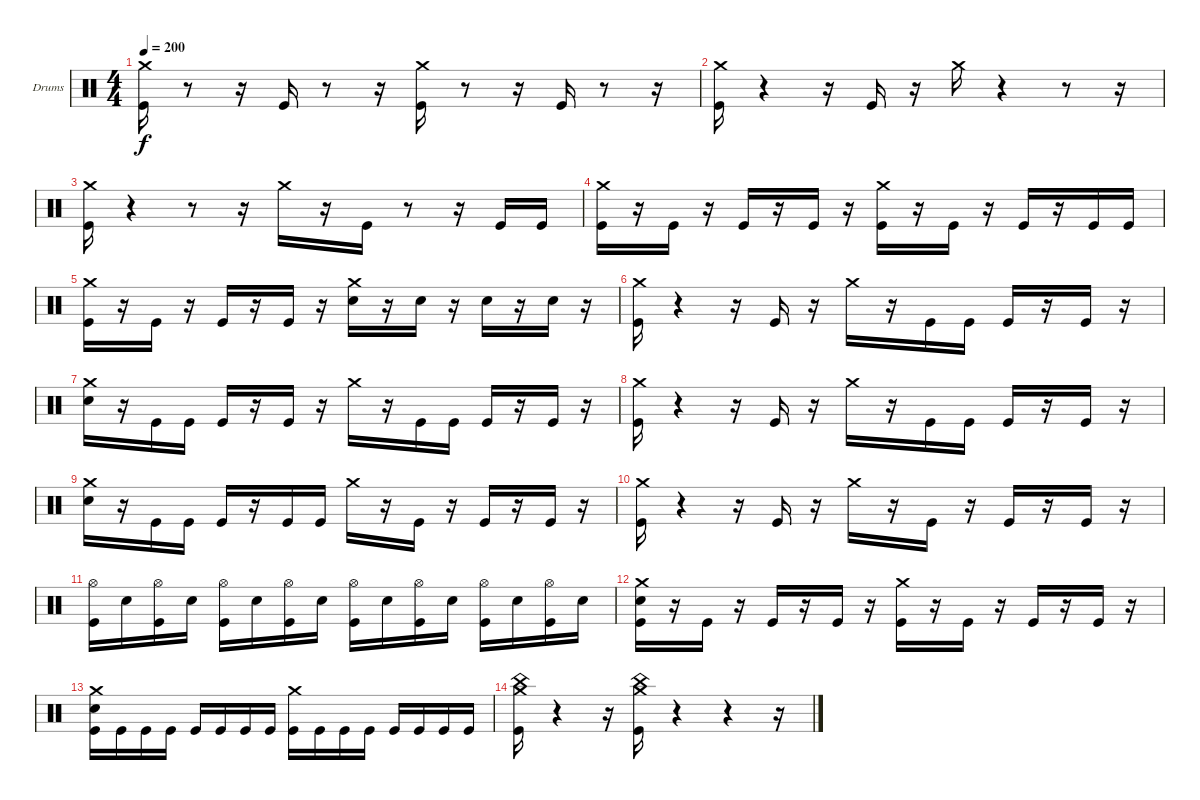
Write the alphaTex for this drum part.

\defaultSystemsLayout 4
\bracketExtendMode groupsimilarinstruments
\firstSystemTrackNameOrientation horizontal
\otherSystemsTrackNameOrientation horizontal
\track ("Drumkit" "Drums") {instrument percussion}
\staff {score}
\articulation defaults
\ts (4 4)
\tempo 200
\clef neutral
\ks c
("Crash medium (hit)" "Kick (hit)").16{dy f} r.8 r.16 "Kick (hit)".16 r.8 r.16 ("Kick (hit)" "Crash medium (hit)").16 r.8 r.16 "Kick (hit)".16 r.8 r.16 |
("Kick (hit)" "Crash medium (hit)").16 r.4 r.16 "Kick (hit)".16 r.16 "Crash medium (hit)".16 r.4 r.8 r.16 |
("Crash medium (hit)" "Kick (hit)").16 r.4 r.8 r.16 "Crash medium (hit)".16 r.16 "Kick (hit)".16 r.8 r.16 "Kick (hit)".16 "Kick (hit)".16 |
("Kick (hit)" "Crash medium (hit)").16 r.16 "Kick (hit)".16 r.16 "Kick (hit)".16 r.16 "Kick (hit)".16 r.16 ("Kick (hit)" "Crash medium (hit)").16 r.16 "Kick (hit)".16 r.16 "Kick (hit)".16 r.16 "Kick (hit)".16 "Kick (hit)".16 |
("Kick (hit)" "Crash medium (hit)").16 r.16 "Kick (hit)".16 r.16 "Kick (hit)".16 r.16 "Kick (hit)".16 r.16 ("Crash medium (hit)" "Snare (hit) 2").16 r.16 "Snare (hit) 2".16 r.16 "Snare (hit) 2".16 r.16 "Snare (hit) 2".16 r.16 |
("Kick (hit)" "Crash medium (hit)").16 r.4 r.16 "Kick (hit)".16 r.16 "Crash medium (hit)".16 r.16 "Kick (hit)".16 "Kick (hit)".16 "Kick (hit)".16 r.16 "Kick (hit)".16 r.16 |
("Snare (hit) 2" "Crash medium (hit)").16 r.16 "Kick (hit)".16 "Kick (hit)".16 "Kick (hit)".16 r.16 "Kick (hit)".16 r.16 "Crash medium (hit)".16 r.16 "Kick (hit)".16 "Kick (hit)".16 "Kick (hit)".16 r.16 "Kick (hit)".16 r.16 |
("Kick (hit)" "Crash medium (hit)").16 r.4 r.16 "Kick (hit)".16 r.16 "Crash medium (hit)".16 r.16 "Kick (hit)".16 "Kick (hit)".16 "Kick (hit)".16 r.16 "Kick (hit)".16 r.16 |
("Snare (hit) 2" "Crash medium (hit)").16 r.16 "Kick (hit)".16 "Kick (hit)".16 "Kick (hit)".16 r.16 "Kick (hit)".16 "Kick (hit)".16 "Crash medium (hit)".16 r.16 "Kick (hit)".16 r.16 "Kick (hit)".16 r.16 "Kick (hit)".16 r.16 |
("Kick (hit)" "Crash medium (hit)").16 r.4 r.16 "Kick (hit)".16 r.16 "Crash medium (hit)".16 r.16 "Kick (hit)".16 r.16 "Kick (hit)".16 r.16 "Kick (hit)".16 r.16 |
("Kick (hit)" "Hi-Hat (open)").16 "Snare (hit) 2".16 ("Kick (hit)" "Hi-Hat (open)").16 "Snare (hit) 2".16 ("Kick (hit)" "Hi-Hat (open)").16 "Snare (hit) 2".16 ("Kick (hit)" "Hi-Hat (open)").16 "Snare (hit) 2".16 ("Kick (hit)" "Hi-Hat (open)").16 "Snare (hit) 2".16 ("Kick (hit)" "Hi-Hat (open)").16 "Snare (hit) 2".16 ("Kick (hit)" "Hi-Hat (open)").16 "Snare (hit) 2".16 ("Kick (hit)" "Hi-Hat (open)").16 "Snare (hit) 2".16 |
("Kick (hit)" "Crash medium (hit)" "Snare (hit) 2").16 r.16 "Kick (hit)".16 r.16 "Kick (hit)".16 r.16 "Kick (hit)".16 r.16 ("Kick (hit)" "Crash medium (hit)").16 r.16 "Kick (hit)".16 r.16 "Kick (hit)".16 r.16 "Kick (hit)".16 r.16 |
("Snare (hit) 2" "Crash medium (hit)" "Kick (hit)").16 "Kick (hit)".16 "Kick (hit)".16 "Kick (hit)".16 "Kick (hit)".16 "Kick (hit)".16 "Kick (hit)".16 "Kick (hit)".16 ("Kick (hit)" "Crash medium (hit)").16 "Kick (hit)".16 "Kick (hit)".16 "Kick (hit)".16 "Kick (hit)".16 "Kick (hit)".16 "Kick (hit)".16 "Kick (hit)".16 |
("Crash medium (hit)" "China (hit)" "Kick (hit)").16 r.4 r.16 ("Crash medium (hit)" "China (hit)" "Kick (hit)").16 r.4 r.4 r.16
